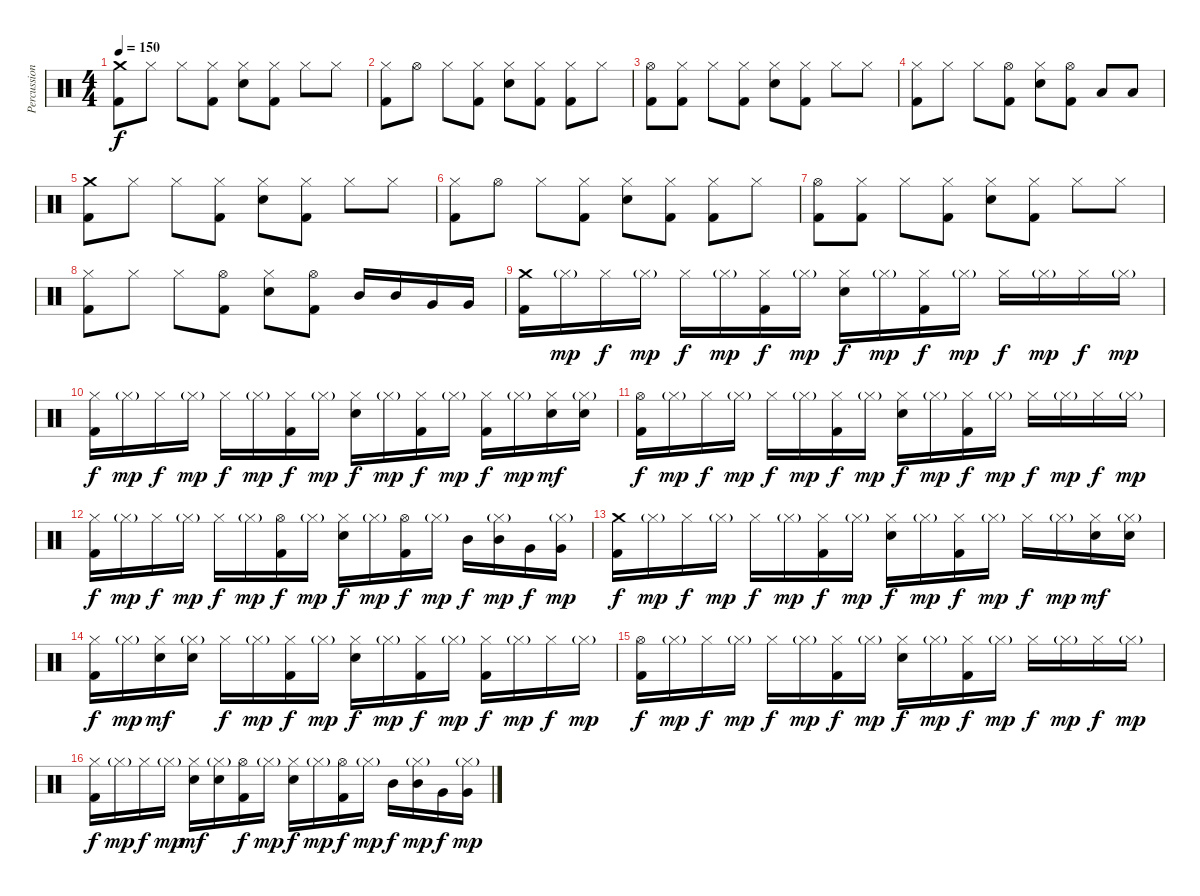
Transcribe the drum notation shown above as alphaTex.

\track ("Percussion" "Percussion") {instrument percussion}
\staff {score}
\articulation defaults
\ts (4 4)
\tempo 150
\clef neutral
\ks c
("Crash medium (hit)" "Kick (hit) 2").8{dy f} "Hi-Hat (closed)".8 "Hi-Hat (closed)".8 ("Hi-Hat (closed)" "Kick (hit) 2").8 ("Hi-Hat (closed)" "Electric Snare (hit)").8 ("Hi-Hat (closed)" "Kick (hit) 2").8 "Hi-Hat (closed)".8 "Hi-Hat (closed)".8 |
("Hi-Hat (closed)" "Kick (hit) 2").8 "Hi-Hat (open)".8 "Hi-Hat (closed)".8 ("Hi-Hat (closed)" "Kick (hit) 2").8 ("Hi-Hat (closed)" "Electric Snare (hit)").8 ("Hi-Hat (closed)" "Kick (hit) 2").8 ("Hi-Hat (closed)" "Kick (hit) 2").8 "Hi-Hat (closed)".8 |
("Hi-Hat (open)" "Kick (hit) 2").8 ("Hi-Hat (closed)" "Kick (hit) 2").8 "Hi-Hat (closed)".8 ("Hi-Hat (closed)" "Kick (hit) 2").8 ("Hi-Hat (closed)" "Electric Snare (hit)").8 ("Hi-Hat (closed)" "Kick (hit) 2").8 "Hi-Hat (closed)".8 "Hi-Hat (closed)".8 |
("Hi-Hat (closed)" "Kick (hit) 2").8 "Hi-Hat (closed)".8 "Hi-Hat (closed)".8 ("Hi-Hat (open)" "Kick (hit) 2").8 ("Hi-Hat (closed)" "Electric Snare (hit)").8 ("Hi-Hat (open)" "Kick (hit) 2").8 "Low Tom (hit)".8 "Low Tom (hit)".8 |
("Crash medium (hit)" "Kick (hit) 2").8 "Hi-Hat (closed)".8 "Hi-Hat (closed)".8 ("Hi-Hat (closed)" "Kick (hit) 2").8 ("Hi-Hat (closed)" "Electric Snare (hit)").8 ("Hi-Hat (closed)" "Kick (hit) 2").8 "Hi-Hat (closed)".8 "Hi-Hat (closed)".8 |
("Hi-Hat (closed)" "Kick (hit) 2").8 "Hi-Hat (open)".8 "Hi-Hat (closed)".8 ("Hi-Hat (closed)" "Kick (hit) 2").8 ("Hi-Hat (closed)" "Electric Snare (hit)").8 ("Hi-Hat (closed)" "Kick (hit) 2").8 ("Hi-Hat (closed)" "Kick (hit) 2").8 "Hi-Hat (closed)".8 |
("Hi-Hat (open)" "Kick (hit) 2").8 ("Hi-Hat (closed)" "Kick (hit) 2").8 "Hi-Hat (closed)".8 ("Hi-Hat (closed)" "Kick (hit) 2").8 ("Hi-Hat (closed)" "Electric Snare (hit)").8 ("Hi-Hat (closed)" "Kick (hit) 2").8 "Hi-Hat (closed)".8 "Hi-Hat (closed)".8 |
("Hi-Hat (closed)" "Kick (hit) 2").8 "Hi-Hat (closed)".8 "Hi-Hat (closed)".8 ("Hi-Hat (open)" "Kick (hit) 2").8 ("Hi-Hat (closed)" "Electric Snare (hit)").8 ("Hi-Hat (open)" "Kick (hit) 2").8 "Mid Tom (hit)".16 "Mid Tom (hit)".16 "Very Low Tom (hit)".16 "Very Low Tom (hit)".16 |
("Crash medium (hit)" "Kick (hit) 2").16 "Hi-Hat (closed)"{g}.16{dy mp} "Hi-Hat (closed)".16{dy f} "Hi-Hat (closed)"{g}.16{dy mp} "Hi-Hat (closed)".16{dy f} "Hi-Hat (closed)"{g}.16{dy mp} ("Hi-Hat (closed)" "Kick (hit) 2").16{dy f} "Hi-Hat (closed)"{g}.16{dy mp} ("Hi-Hat (closed)" "Electric Snare (hit)").16{dy f} "Hi-Hat (closed)"{g}.16{dy mp} ("Hi-Hat (closed)" "Kick (hit) 2").16{dy f} "Hi-Hat (closed)"{g}.16{dy mp} "Hi-Hat (closed)".16{dy f} "Hi-Hat (closed)"{g}.16{dy mp} "Hi-Hat (closed)".16{dy f} "Hi-Hat (closed)"{g}.16{dy mp} |
("Hi-Hat (closed)" "Kick (hit) 2").16{dy f} "Hi-Hat (closed)"{g}.16{dy mp} "Hi-Hat (closed)".16{dy f} "Hi-Hat (closed)"{g}.16{dy mp} "Hi-Hat (closed)".16{dy f} "Hi-Hat (closed)"{g}.16{dy mp} ("Hi-Hat (closed)" "Kick (hit) 2").16{dy f} "Hi-Hat (closed)"{g}.16{dy mp} ("Hi-Hat (closed)" "Electric Snare (hit)").16{dy f} "Hi-Hat (closed)"{g}.16{dy mp} ("Hi-Hat (closed)" "Kick (hit) 2").16{dy f} "Hi-Hat (closed)"{g}.16{dy mp} ("Hi-Hat (closed)" "Kick (hit) 2").16{dy f} "Hi-Hat (closed)"{g}.16{dy mp} ("Hi-Hat (closed)" "Electric Snare (hit)").16{dy mf} ("Hi-Hat (closed)"{g} "Electric Snare (hit)").16 |
("Hi-Hat (open)" "Kick (hit) 2").16{dy f} "Hi-Hat (closed)"{g}.16{dy mp} "Hi-Hat (closed)".16{dy f} "Hi-Hat (closed)"{g}.16{dy mp} "Hi-Hat (closed)".16{dy f} "Hi-Hat (closed)"{g}.16{dy mp} ("Hi-Hat (closed)" "Kick (hit) 2").16{dy f} "Hi-Hat (closed)"{g}.16{dy mp} ("Hi-Hat (closed)" "Electric Snare (hit)").16{dy f} "Hi-Hat (closed)"{g}.16{dy mp} ("Hi-Hat (closed)" "Kick (hit) 2").16{dy f} "Hi-Hat (closed)"{g}.16{dy mp} "Hi-Hat (closed)".16{dy f} "Hi-Hat (closed)"{g}.16{dy mp} "Hi-Hat (closed)".16{dy f} "Hi-Hat (closed)"{g}.16{dy mp} |
("Hi-Hat (closed)" "Kick (hit) 2").16{dy f} "Hi-Hat (closed)"{g}.16{dy mp} "Hi-Hat (closed)".16{dy f} "Hi-Hat (closed)"{g}.16{dy mp} "Hi-Hat (closed)".16{dy f} "Hi-Hat (closed)"{g}.16{dy mp} ("Hi-Hat (open)" "Kick (hit) 2").16{dy f} "Hi-Hat (closed)"{g}.16{dy mp} ("Hi-Hat (closed)" "Electric Snare (hit)").16{dy f} "Hi-Hat (closed)"{g}.16{dy mp} ("Hi-Hat (open)" "Kick (hit) 2").16{dy f} "Hi-Hat (closed)"{g}.16{dy mp} "Mid Tom (hit)".16{dy f} ("Hi-Hat (closed)"{g} "Mid Tom (hit)").16{dy mp} "Very Low Tom (hit)".16{dy f} ("Hi-Hat (closed)"{g} "Very Low Tom (hit)").16{dy mp} |
("Crash medium (hit)" "Kick (hit) 2").16{dy f} "Hi-Hat (closed)"{g}.16{dy mp} "Hi-Hat (closed)".16{dy f} "Hi-Hat (closed)"{g}.16{dy mp} "Hi-Hat (closed)".16{dy f} "Hi-Hat (closed)"{g}.16{dy mp} ("Hi-Hat (closed)" "Kick (hit) 2").16{dy f} "Hi-Hat (closed)"{g}.16{dy mp} ("Hi-Hat (closed)" "Electric Snare (hit)").16{dy f} "Hi-Hat (closed)"{g}.16{dy mp} ("Hi-Hat (closed)" "Kick (hit) 2").16{dy f} "Hi-Hat (closed)"{g}.16{dy mp} "Hi-Hat (closed)".16{dy f} "Hi-Hat (closed)"{g}.16{dy mp} ("Hi-Hat (closed)" "Electric Snare (hit)").16{dy mf} ("Hi-Hat (closed)"{g} "Electric Snare (hit)").16 |
("Hi-Hat (closed)" "Kick (hit) 2").16{dy f} "Hi-Hat (closed)"{g}.16{dy mp} ("Hi-Hat (closed)" "Electric Snare (hit)").16{dy mf} ("Hi-Hat (closed)"{g} "Electric Snare (hit)").16 "Hi-Hat (closed)".16{dy f} "Hi-Hat (closed)"{g}.16{dy mp} ("Hi-Hat (closed)" "Kick (hit) 2").16{dy f} "Hi-Hat (closed)"{g}.16{dy mp} ("Hi-Hat (closed)" "Electric Snare (hit)").16{dy f} "Hi-Hat (closed)"{g}.16{dy mp} ("Hi-Hat (closed)" "Kick (hit) 2").16{dy f} "Hi-Hat (closed)"{g}.16{dy mp} ("Hi-Hat (closed)" "Kick (hit) 2").16{dy f} "Hi-Hat (closed)"{g}.16{dy mp} "Hi-Hat (closed)".16{dy f} "Hi-Hat (closed)"{g}.16{dy mp} |
("Hi-Hat (open)" "Kick (hit) 2").16{dy f} "Hi-Hat (closed)"{g}.16{dy mp} "Hi-Hat (closed)".16{dy f} "Hi-Hat (closed)"{g}.16{dy mp} "Hi-Hat (closed)".16{dy f} "Hi-Hat (closed)"{g}.16{dy mp} ("Hi-Hat (closed)" "Kick (hit) 2").16{dy f} "Hi-Hat (closed)"{g}.16{dy mp} ("Hi-Hat (closed)" "Electric Snare (hit)").16{dy f} "Hi-Hat (closed)"{g}.16{dy mp} ("Hi-Hat (closed)" "Kick (hit) 2").16{dy f} "Hi-Hat (closed)"{g}.16{dy mp} "Hi-Hat (closed)".16{dy f} "Hi-Hat (closed)"{g}.16{dy mp} "Hi-Hat (closed)".16{dy f} "Hi-Hat (closed)"{g}.16{dy mp} |
("Hi-Hat (closed)" "Kick (hit) 2").16{dy f} "Hi-Hat (closed)"{g}.16{dy mp} "Hi-Hat (closed)".16{dy f} "Hi-Hat (closed)"{g}.16{dy mp} ("Hi-Hat (closed)" "Electric Snare (hit)").16{dy mf} ("Hi-Hat (closed)"{g} "Electric Snare (hit)").16 ("Hi-Hat (open)" "Kick (hit) 2").16{dy f} "Hi-Hat (closed)"{g}.16{dy mp} ("Hi-Hat (closed)" "Electric Snare (hit)").16{dy f} "Hi-Hat (closed)"{g}.16{dy mp} ("Hi-Hat (open)" "Kick (hit) 2").16{dy f} "Hi-Hat (closed)"{g}.16{dy mp} "Mid Tom (hit)".16{dy f} ("Hi-Hat (closed)"{g} "Mid Tom (hit)").16{dy mp} "Very Low Tom (hit)".16{dy f} ("Hi-Hat (closed)"{g} "Very Low Tom (hit)").16{dy mp}
